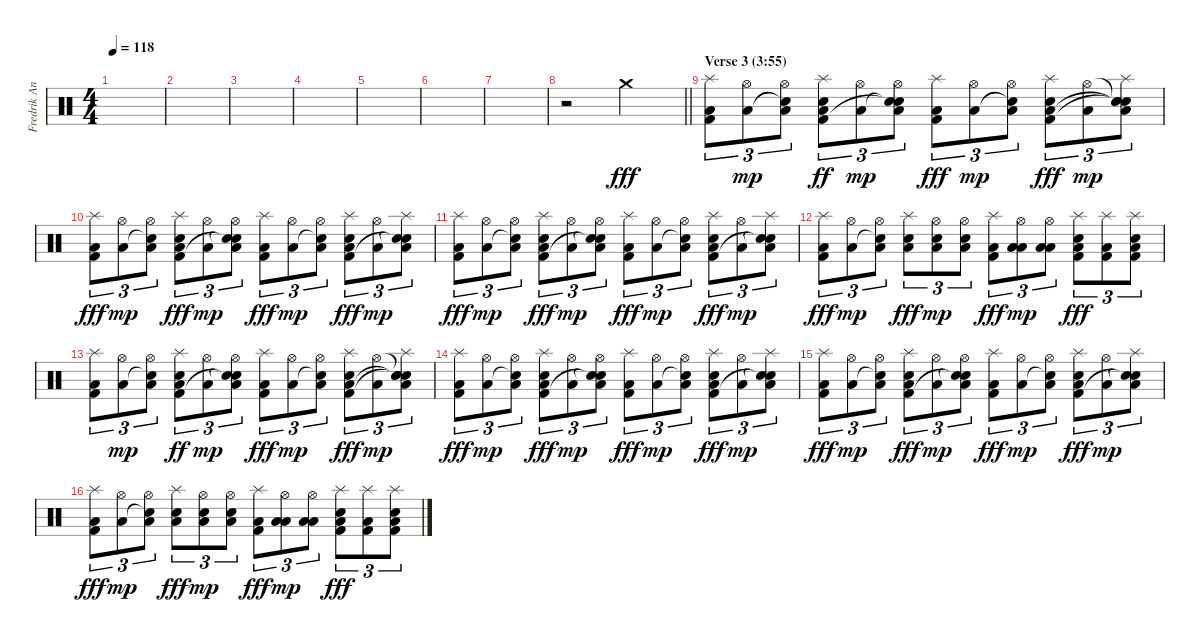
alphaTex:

\track ("Fredrik Andersson " "Fredrik An") {instrument percussion}
\staff {score}
\articulation defaults
\ts (4 4)
\tempo 118
\clef neutral
\ks c
|
|
|
|
|
|
|
\barLineRight lightlight
r.2 "Crash medium (hit)".2{dy fff volume 13} |
\section ("" "Verse 3 (3:55)")
("Splash (hit)" "Kick (hit) 2" "Low Floor Tom (hit)").8{tu (3 2)} ("Hi-Hat (open)" "Low Floor Tom (hit)").8{tu (3 2) dy mp} ("Hi-Hat (open)" "Snare (hit)"{t} "Low Floor Tom (hit)").8{tu (3 2)} ("Splash (hit)" "Snare (hit) 2" "Kick (hit) 2" "Low Floor Tom (hit)").8{tu (3 2) dy ff} ("Hi-Hat (open)" "Low Floor Tom (hit)").8{tu (3 2) dy mp} ("Hi-Hat (open)" "Snare (hit)"{t} "Snare (hit)"{t} "Low Floor Tom (hit)").8{tu (3 2)} ("Splash (hit)" "Kick (hit) 2" "Low Floor Tom (hit)").8{tu (3 2) dy fff} ("Hi-Hat (open)" "Low Floor Tom (hit)").8{tu (3 2) dy mp} ("Hi-Hat (open)" "Snare (hit)"{t} "Low Floor Tom (hit)").8{tu (3 2)} ("Splash (hit)" "Snare (hit) 2" "Kick (hit) 2" "Low Floor Tom (hit)").8{tu (3 2) dy fff} ("Hi-Hat (open)" "Low Floor Tom (hit)").8{tu (3 2) dy mp} ("Snare (hit)"{t} "Splash (hit)" "Snare (hit)"{t} "Snare (hit)"{t} "Low Floor Tom (hit)").8{tu (3 2)} |
("Splash (hit)" "Kick (hit) 2" "Low Floor Tom (hit)").8{tu (3 2) dy fff} ("Hi-Hat (open)" "Low Floor Tom (hit)").8{tu (3 2) dy mp} ("Hi-Hat (open)" "Snare (hit)"{t} "Low Floor Tom (hit)").8{tu (3 2)} ("Splash (hit)" "Snare (hit) 2" "Kick (hit) 2" "Low Floor Tom (hit)").8{tu (3 2) dy fff} ("Hi-Hat (open)" "Low Floor Tom (hit)").8{tu (3 2) dy mp} ("Hi-Hat (open)" "Snare (hit)"{t} "Snare (hit)"{t} "Low Floor Tom (hit)").8{tu (3 2)} ("Splash (hit)" "Kick (hit) 2" "Low Floor Tom (hit)").8{tu (3 2) dy fff} ("Hi-Hat (open)" "Low Floor Tom (hit)").8{tu (3 2) dy mp} ("Hi-Hat (open)" "Snare (hit)"{t} "Low Floor Tom (hit)").8{tu (3 2)} ("Splash (hit)" "Snare (hit) 2" "Kick (hit) 2" "Low Floor Tom (hit)").8{tu (3 2) dy fff} ("Hi-Hat (open)" "Low Floor Tom (hit)").8{tu (3 2) dy mp} ("Splash (hit)" "Snare (hit)"{t} "Snare (hit)"{t} "Low Floor Tom (hit)").8{tu (3 2)} |
("Splash (hit)" "Kick (hit) 2" "Low Floor Tom (hit)").8{tu (3 2) dy fff} ("Hi-Hat (open)" "Low Floor Tom (hit)").8{tu (3 2) dy mp} ("Hi-Hat (open)" "Snare (hit)"{t} "Low Floor Tom (hit)").8{tu (3 2)} ("Splash (hit)" "Snare (hit) 2" "Kick (hit) 2" "Low Floor Tom (hit)").8{tu (3 2) dy fff} ("Hi-Hat (open)" "Low Floor Tom (hit)").8{tu (3 2) dy mp} ("Hi-Hat (open)" "Snare (hit)"{t} "Snare (hit)"{t} "Low Floor Tom (hit)").8{tu (3 2)} ("Splash (hit)" "Kick (hit) 2" "Low Floor Tom (hit)").8{tu (3 2) dy fff} ("Hi-Hat (open)" "Low Floor Tom (hit)").8{tu (3 2) dy mp} ("Hi-Hat (open)" "Snare (hit)"{t} "Low Floor Tom (hit)").8{tu (3 2)} ("Splash (hit)" "Snare (hit) 2" "Kick (hit) 2" "Low Floor Tom (hit)").8{tu (3 2) dy fff} ("Hi-Hat (open)" "Low Floor Tom (hit)").8{tu (3 2) dy mp} ("Splash (hit)" "Snare (hit)"{t} "Snare (hit)"{t} "Low Floor Tom (hit)").8{tu (3 2)} |
("Splash (hit)" "Kick (hit) 2" "Low Floor Tom (hit)").8{tu (3 2) dy fff} ("Hi-Hat (open)" "Low Floor Tom (hit)").8{tu (3 2) dy mp} ("Hi-Hat (open)" "Snare (hit)"{t} "Low Floor Tom (hit)").8{tu (3 2)} ("Splash (hit)" "Snare (hit) 2" "Low Floor Tom (hit)").8{tu (3 2) dy fff} ("Hi-Hat (open)" "Snare (hit) 2" "Low Floor Tom (hit)").8{tu (3 2) dy mp} ("Hi-Hat (open)" "Snare (hit) 2" "Low Floor Tom (hit)").8{tu (3 2)} ("Splash (hit)" "Kick (hit) 2" "Low Floor Tom (hit)").8{tu (3 2) dy fff} ("Hi-Hat (open)" "Low Tom (hit)" "Low Floor Tom (hit)").8{tu (3 2) dy mp} ("Hi-Hat (open)" "Low Tom (hit)" "Low Floor Tom (hit)").8{tu (3 2)} ("Splash (hit)" "Snare (hit) 2" "Kick (hit) 2" "Low Floor Tom (hit)").8{tu (3 2) dy fff} ("Splash (hit)" "Kick (hit) 2" "Low Floor Tom (hit)").8{tu (3 2)} ("Splash (hit)" "Snare (hit) 2" "Kick (hit) 2" "Low Floor Tom (hit)").8{tu (3 2)} |
("Splash (hit)" "Kick (hit) 2" "Low Floor Tom (hit)").8{tu (3 2)} ("Hi-Hat (open)" "Low Floor Tom (hit)").8{tu (3 2) dy mp} ("Hi-Hat (open)" "Snare (hit)"{t} "Low Floor Tom (hit)").8{tu (3 2)} ("Splash (hit)" "Snare (hit) 2" "Kick (hit) 2" "Low Floor Tom (hit)").8{tu (3 2) dy ff} ("Hi-Hat (open)" "Low Floor Tom (hit)").8{tu (3 2) dy mp} ("Hi-Hat (open)" "Snare (hit)"{t} "Snare (hit)"{t} "Low Floor Tom (hit)").8{tu (3 2)} ("Splash (hit)" "Kick (hit) 2" "Low Floor Tom (hit)").8{tu (3 2) dy fff} ("Hi-Hat (open)" "Low Floor Tom (hit)").8{tu (3 2) dy mp} ("Hi-Hat (open)" "Snare (hit)"{t} "Low Floor Tom (hit)").8{tu (3 2)} ("Splash (hit)" "Snare (hit) 2" "Kick (hit) 2" "Low Floor Tom (hit)").8{tu (3 2) dy fff} ("Hi-Hat (open)" "Low Floor Tom (hit)").8{tu (3 2) dy mp} ("Snare (hit)"{t} "Splash (hit)" "Snare (hit)"{t} "Snare (hit)"{t} "Low Floor Tom (hit)").8{tu (3 2)} |
("Splash (hit)" "Kick (hit) 2" "Low Floor Tom (hit)").8{tu (3 2) dy fff} ("Hi-Hat (open)" "Low Floor Tom (hit)").8{tu (3 2) dy mp} ("Hi-Hat (open)" "Snare (hit)"{t} "Low Floor Tom (hit)").8{tu (3 2)} ("Splash (hit)" "Snare (hit) 2" "Kick (hit) 2" "Low Floor Tom (hit)").8{tu (3 2) dy fff} ("Hi-Hat (open)" "Low Floor Tom (hit)").8{tu (3 2) dy mp} ("Hi-Hat (open)" "Snare (hit)"{t} "Snare (hit)"{t} "Low Floor Tom (hit)").8{tu (3 2)} ("Splash (hit)" "Kick (hit) 2" "Low Floor Tom (hit)").8{tu (3 2) dy fff} ("Hi-Hat (open)" "Low Floor Tom (hit)").8{tu (3 2) dy mp} ("Hi-Hat (open)" "Snare (hit)"{t} "Low Floor Tom (hit)").8{tu (3 2)} ("Splash (hit)" "Snare (hit) 2" "Kick (hit) 2" "Low Floor Tom (hit)").8{tu (3 2) dy fff} ("Hi-Hat (open)" "Low Floor Tom (hit)").8{tu (3 2) dy mp} ("Splash (hit)" "Snare (hit)"{t} "Snare (hit)"{t} "Low Floor Tom (hit)").8{tu (3 2)} |
("Splash (hit)" "Kick (hit) 2" "Low Floor Tom (hit)").8{tu (3 2) dy fff} ("Hi-Hat (open)" "Low Floor Tom (hit)").8{tu (3 2) dy mp} ("Hi-Hat (open)" "Snare (hit)"{t} "Low Floor Tom (hit)").8{tu (3 2)} ("Splash (hit)" "Snare (hit) 2" "Kick (hit) 2" "Low Floor Tom (hit)").8{tu (3 2) dy fff} ("Hi-Hat (open)" "Low Floor Tom (hit)").8{tu (3 2) dy mp} ("Hi-Hat (open)" "Snare (hit)"{t} "Snare (hit)"{t} "Low Floor Tom (hit)").8{tu (3 2)} ("Splash (hit)" "Kick (hit) 2" "Low Floor Tom (hit)").8{tu (3 2) dy fff} ("Hi-Hat (open)" "Low Floor Tom (hit)").8{tu (3 2) dy mp} ("Hi-Hat (open)" "Snare (hit)"{t} "Low Floor Tom (hit)").8{tu (3 2)} ("Splash (hit)" "Snare (hit) 2" "Kick (hit) 2" "Low Floor Tom (hit)").8{tu (3 2) dy fff} ("Hi-Hat (open)" "Low Floor Tom (hit)").8{tu (3 2) dy mp} ("Splash (hit)" "Snare (hit)"{t} "Snare (hit)"{t} "Low Floor Tom (hit)").8{tu (3 2)} |
("Splash (hit)" "Kick (hit) 2" "Low Floor Tom (hit)").8{tu (3 2) dy fff} ("Hi-Hat (open)" "Low Floor Tom (hit)").8{tu (3 2) dy mp} ("Hi-Hat (open)" "Snare (hit)"{t} "Low Floor Tom (hit)").8{tu (3 2)} ("Splash (hit)" "Snare (hit) 2" "Low Floor Tom (hit)").8{tu (3 2) dy fff} ("Hi-Hat (open)" "Snare (hit) 2" "Low Floor Tom (hit)").8{tu (3 2) dy mp} ("Hi-Hat (open)" "Snare (hit) 2" "Low Floor Tom (hit)").8{tu (3 2)} ("Splash (hit)" "Kick (hit) 2" "Low Floor Tom (hit)").8{tu (3 2) dy fff} ("Hi-Hat (open)" "Low Tom (hit)" "Low Floor Tom (hit)").8{tu (3 2) dy mp} ("Hi-Hat (open)" "Low Tom (hit)" "Low Floor Tom (hit)").8{tu (3 2)} ("Splash (hit)" "Snare (hit) 2" "Kick (hit) 2" "Low Floor Tom (hit)").8{tu (3 2) dy fff} ("Splash (hit)" "Kick (hit) 2" "Low Floor Tom (hit)").8{tu (3 2)} ("Splash (hit)" "Snare (hit) 2" "Kick (hit) 2" "Low Floor Tom (hit)").8{tu (3 2)}
